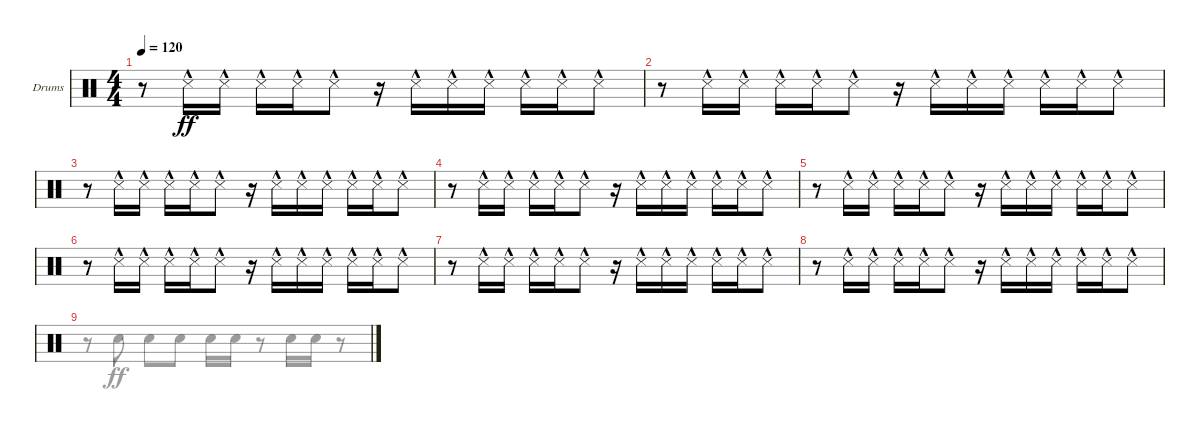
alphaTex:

\defaultSystemsLayout 4
\bracketExtendMode nobrackets
\firstSystemTrackNameOrientation horizontal
\otherSystemsTrackNameOrientation horizontal
\track ("Drumkit" "Drums") {instrument percussion}
\staff {score}
\articulation defaults
\voice
\ts (4 4)
\tempo 120
\clef neutral
\ks c
r.8{dy ff} "Snare (side stick) 3"{hac}.16 "Snare (side stick) 3"{hac}.16 "Snare (side stick) 3"{hac}.16 "Snare (side stick) 3"{hac}.16 "Snare (side stick) 3"{hac}.8 r.16 "Snare (side stick) 3"{hac}.16 "Snare (side stick) 3"{hac}.16 "Snare (side stick) 3"{hac}.16 "Snare (side stick) 3"{hac}.16 "Snare (side stick) 3"{hac}.16 "Snare (side stick) 3"{hac}.8 |
r.8 "Snare (side stick) 3"{hac}.16 "Snare (side stick) 3"{hac}.16 "Snare (side stick) 3"{hac}.16 "Snare (side stick) 3"{hac}.16 "Snare (side stick) 3"{hac}.8 r.16 "Snare (side stick) 3"{hac}.16 "Snare (side stick) 3"{hac}.16 "Snare (side stick) 3"{hac}.16 "Snare (side stick) 3"{hac}.16 "Snare (side stick) 3"{hac}.16 "Snare (side stick) 3"{hac}.8 |
r.8 "Snare (side stick) 3"{hac}.16 "Snare (side stick) 3"{hac}.16 "Snare (side stick) 3"{hac}.16 "Snare (side stick) 3"{hac}.16 "Snare (side stick) 3"{hac}.8 r.16 "Snare (side stick) 3"{hac}.16 "Snare (side stick) 3"{hac}.16 "Snare (side stick) 3"{hac}.16 "Snare (side stick) 3"{hac}.16 "Snare (side stick) 3"{hac}.16 "Snare (side stick) 3"{hac}.8 |
r.8 "Snare (side stick) 3"{hac}.16 "Snare (side stick) 3"{hac}.16 "Snare (side stick) 3"{hac}.16 "Snare (side stick) 3"{hac}.16 "Snare (side stick) 3"{hac}.8 r.16 "Snare (side stick) 3"{hac}.16 "Snare (side stick) 3"{hac}.16 "Snare (side stick) 3"{hac}.16 "Snare (side stick) 3"{hac}.16 "Snare (side stick) 3"{hac}.16 "Snare (side stick) 3"{hac}.8 |
r.8 "Snare (side stick) 3"{hac}.16 "Snare (side stick) 3"{hac}.16 "Snare (side stick) 3"{hac}.16 "Snare (side stick) 3"{hac}.16 "Snare (side stick) 3"{hac}.8 r.16 "Snare (side stick) 3"{hac}.16 "Snare (side stick) 3"{hac}.16 "Snare (side stick) 3"{hac}.16 "Snare (side stick) 3"{hac}.16 "Snare (side stick) 3"{hac}.16 "Snare (side stick) 3"{hac}.8 |
r.8 "Snare (side stick) 3"{hac}.16 "Snare (side stick) 3"{hac}.16 "Snare (side stick) 3"{hac}.16 "Snare (side stick) 3"{hac}.16 "Snare (side stick) 3"{hac}.8 r.16 "Snare (side stick) 3"{hac}.16 "Snare (side stick) 3"{hac}.16 "Snare (side stick) 3"{hac}.16 "Snare (side stick) 3"{hac}.16 "Snare (side stick) 3"{hac}.16 "Snare (side stick) 3"{hac}.8 |
r.8 "Snare (side stick) 3"{hac}.16 "Snare (side stick) 3"{hac}.16 "Snare (side stick) 3"{hac}.16 "Snare (side stick) 3"{hac}.16 "Snare (side stick) 3"{hac}.8 r.16 "Snare (side stick) 3"{hac}.16 "Snare (side stick) 3"{hac}.16 "Snare (side stick) 3"{hac}.16 "Snare (side stick) 3"{hac}.16 "Snare (side stick) 3"{hac}.16 "Snare (side stick) 3"{hac}.8 |
r.8 "Snare (side stick) 3"{hac}.16 "Snare (side stick) 3"{hac}.16 "Snare (side stick) 3"{hac}.16 "Snare (side stick) 3"{hac}.16 "Snare (side stick) 3"{hac}.8 r.16 "Snare (side stick) 3"{hac}.16 "Snare (side stick) 3"{hac}.16 "Snare (side stick) 3"{hac}.16 "Snare (side stick) 3"{hac}.16 "Snare (side stick) 3"{hac}.16 "Snare (side stick) 3"{hac}.8 |
|
|
|
|
|
|
|
\voice
\clef neutral
\ottava regular
\simile none
\ks c
|
|
|
|
|
|
|
|
r.8 "Snare (hit) 2".8 "Snare (hit) 2".8 "Snare (hit) 2".8 "Snare (hit) 2".16 "Snare (hit) 2".16 r.8 "Snare (hit) 2".16 "Snare (hit) 2".16 r.8 |
|
|
|
|
|
|
